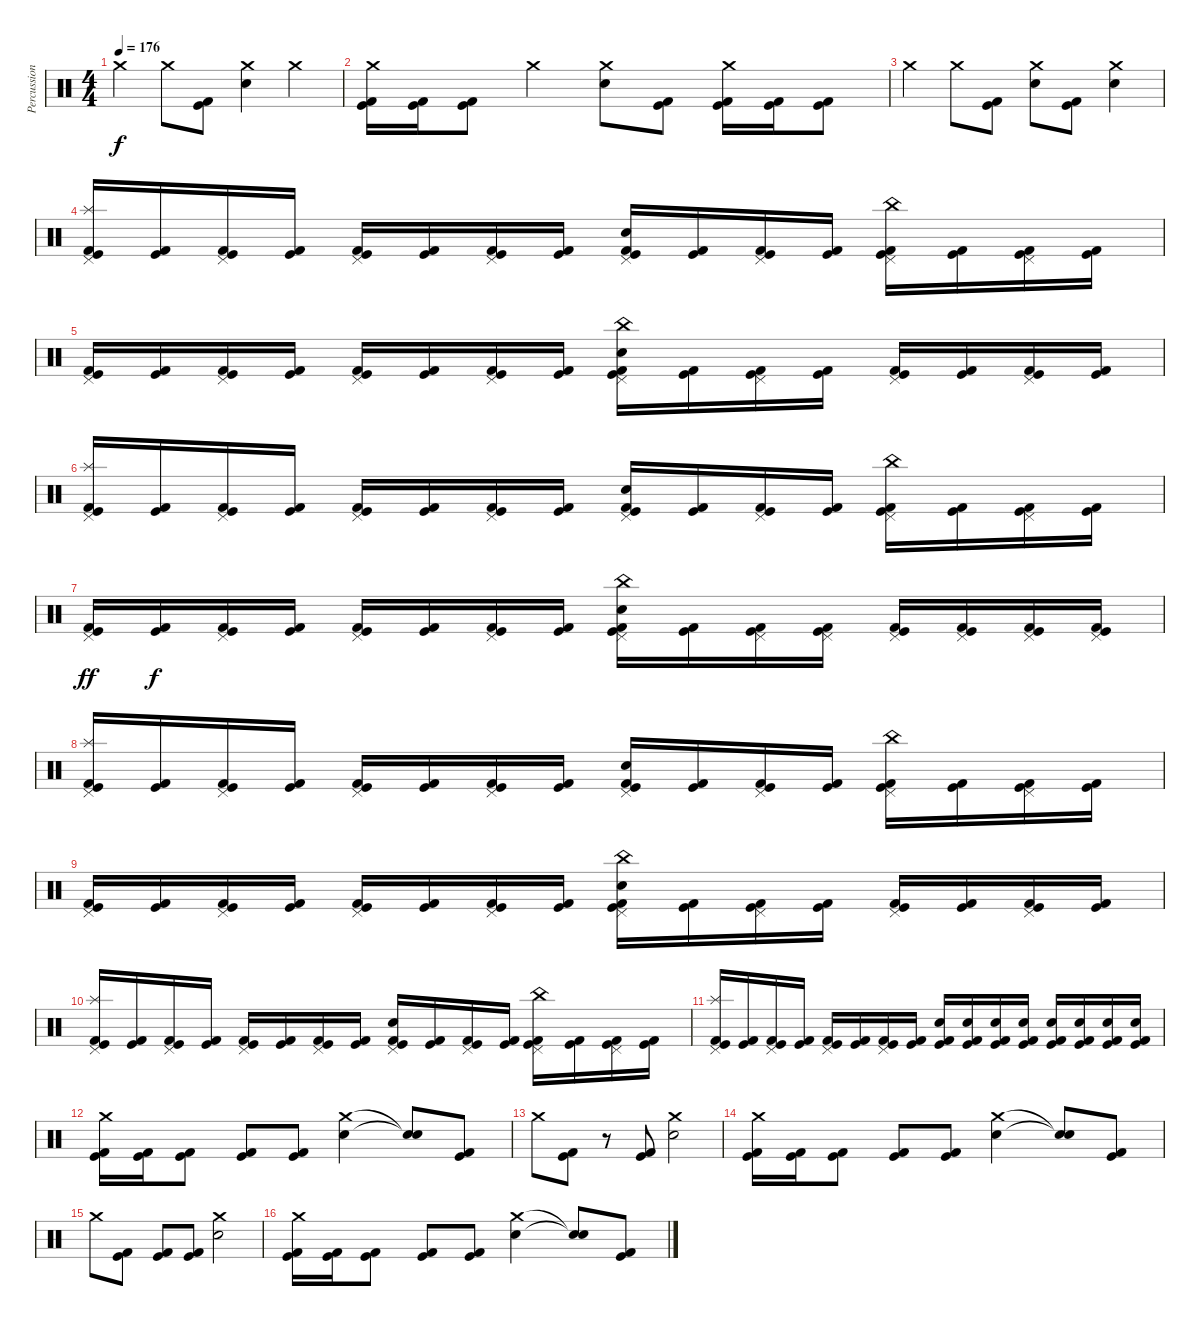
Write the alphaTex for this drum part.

\track ("Percussions" "Percussion") {instrument percussion}
\staff {score}
\articulation defaults
\ts (4 4)
\tempo 176
\clef neutral
\ks c "Crash medium (hit)".4{dy f} "Crash medium (hit)".8
("Kick (hit)" "Kick (hit) 2").8 ("Crash medium (hit)" "Electric Snare (hit)").4 "Crash medium (hit)".4 |
("Crash medium (hit)" "Kick (hit)" "Kick (hit) 2").16 ("Kick (hit)" "Kick (hit) 2").16 ("Kick (hit)" "Kick (hit) 2").8 "Crash medium (hit)".4 ("Crash medium (hit)" "Electric Snare (hit)").8 ("Kick (hit)" "Kick (hit) 2").8 ("Crash medium (hit)" "Kick (hit)" "Kick (hit) 2").16 ("Kick (hit)" "Kick (hit) 2").16 ("Kick (hit)" "Kick (hit) 2").8 |
"Crash medium (hit)".4 "Crash medium (hit)".8 ("Kick (hit)" "Kick (hit) 2").8 ("Crash medium (hit)" "Electric Snare (hit)").8 ("Kick (hit)" "Kick (hit) 2").8 ("Crash medium (hit)" "Electric Snare (hit)").4 |
("Splash (hit)" "Pedal Hi-Hat (hit)" "Kick (hit)" "Kick (hit) 2").16 ("Kick (hit)" "Kick (hit) 2").16 ("Pedal Hi-Hat (hit)" "Kick (hit)" "Kick (hit) 2").16 ("Kick (hit)" "Kick (hit) 2").16 ("Pedal Hi-Hat (hit)" "Kick (hit)" "Kick (hit) 2").16 ("Kick (hit)" "Kick (hit) 2").16 ("Pedal Hi-Hat (hit)" "Kick (hit)" "Kick (hit) 2").16 ("Kick (hit)" "Kick (hit) 2").16 ("Pedal Hi-Hat (hit)" "Electric Snare (hit)" "Kick (hit)" "Kick (hit) 2").16 ("Kick (hit)" "Kick (hit) 2").16 ("Pedal Hi-Hat (hit)" "Kick (hit)" "Kick (hit) 2").16 ("Kick (hit)" "Kick (hit) 2").16 ("China (hit)" "Pedal Hi-Hat (hit)" "Kick (hit)" "Kick (hit) 2").16 ("Kick (hit)" "Kick (hit) 2").16 ("Pedal Hi-Hat (hit)" "Kick (hit)" "Kick (hit) 2").16 ("Kick (hit)" "Kick (hit) 2").16 |
("Pedal Hi-Hat (hit)" "Kick (hit)" "Kick (hit) 2").16 ("Kick (hit)" "Kick (hit) 2").16 ("Pedal Hi-Hat (hit)" "Kick (hit)" "Kick (hit) 2").16 ("Kick (hit)" "Kick (hit) 2").16 ("Pedal Hi-Hat (hit)" "Kick (hit)" "Kick (hit) 2").16 ("Kick (hit)" "Kick (hit) 2").16 ("Pedal Hi-Hat (hit)" "Kick (hit)" "Kick (hit) 2").16 ("Kick (hit)" "Kick (hit) 2").16 ("China (hit)" "Pedal Hi-Hat (hit)" "Electric Snare (hit)" "Kick (hit)" "Kick (hit) 2").16 ("Kick (hit)" "Kick (hit) 2").16 ("Pedal Hi-Hat (hit)" "Kick (hit)" "Kick (hit) 2").16 ("Kick (hit)" "Kick (hit) 2").16 ("Pedal Hi-Hat (hit)" "Kick (hit)" "Kick (hit) 2").16 ("Kick (hit)" "Kick (hit) 2").16 ("Pedal Hi-Hat (hit)" "Kick (hit)" "Kick (hit) 2").16 ("Kick (hit)" "Kick (hit) 2").16 |
("Splash (hit)" "Pedal Hi-Hat (hit)" "Kick (hit)" "Kick (hit) 2").16 ("Kick (hit)" "Kick (hit) 2").16 ("Pedal Hi-Hat (hit)" "Kick (hit)" "Kick (hit) 2").16 ("Kick (hit)" "Kick (hit) 2").16 ("Pedal Hi-Hat (hit)" "Kick (hit)" "Kick (hit) 2").16 ("Kick (hit)" "Kick (hit) 2").16 ("Pedal Hi-Hat (hit)" "Kick (hit)" "Kick (hit) 2").16 ("Kick (hit)" "Kick (hit) 2").16 ("Pedal Hi-Hat (hit)" "Electric Snare (hit)" "Kick (hit)" "Kick (hit) 2").16 ("Kick (hit)" "Kick (hit) 2").16 ("Pedal Hi-Hat (hit)" "Kick (hit)" "Kick (hit) 2").16 ("Kick (hit)" "Kick (hit) 2").16 ("China (hit)" "Pedal Hi-Hat (hit)" "Kick (hit)" "Kick (hit) 2").16 ("Kick (hit)" "Kick (hit) 2").16 ("Pedal Hi-Hat (hit)" "Kick (hit)" "Kick (hit) 2").16 ("Kick (hit)" "Kick (hit) 2").16 |
("Pedal Hi-Hat (hit)" "Kick (hit)" "Kick (hit) 2").16{dy ff} ("Kick (hit)" "Kick (hit) 2").16{dy f} ("Pedal Hi-Hat (hit)" "Kick (hit)" "Kick (hit) 2").16 ("Kick (hit)" "Kick (hit) 2").16 ("Pedal Hi-Hat (hit)" "Kick (hit)" "Kick (hit) 2").16 ("Kick (hit)" "Kick (hit) 2").16 ("Pedal Hi-Hat (hit)" "Kick (hit)" "Kick (hit) 2").16 ("Kick (hit)" "Kick (hit) 2").16 ("China (hit)" "Pedal Hi-Hat (hit)" "Electric Snare (hit)" "Kick (hit)" "Kick (hit) 2").16 ("Kick (hit)" "Kick (hit) 2").16 ("Pedal Hi-Hat (hit)" "Kick (hit)" "Kick (hit) 2").16 ("Pedal Hi-Hat (hit)" "Kick (hit)" "Kick (hit) 2").16 ("Pedal Hi-Hat (hit)" "Kick (hit)" "Kick (hit) 2").16 ("Pedal Hi-Hat (hit)" "Kick (hit)" "Kick (hit) 2").16 ("Pedal Hi-Hat (hit)" "Kick (hit)" "Kick (hit) 2").16 ("Pedal Hi-Hat (hit)" "Kick (hit)" "Kick (hit) 2").16 |
("Splash (hit)" "Pedal Hi-Hat (hit)" "Kick (hit)" "Kick (hit) 2").16 ("Kick (hit)" "Kick (hit) 2").16 ("Pedal Hi-Hat (hit)" "Kick (hit)" "Kick (hit) 2").16 ("Kick (hit)" "Kick (hit) 2").16 ("Pedal Hi-Hat (hit)" "Kick (hit)" "Kick (hit) 2").16 ("Kick (hit)" "Kick (hit) 2").16 ("Pedal Hi-Hat (hit)" "Kick (hit)" "Kick (hit) 2").16 ("Kick (hit)" "Kick (hit) 2").16 ("Pedal Hi-Hat (hit)" "Electric Snare (hit)" "Kick (hit)" "Kick (hit) 2").16 ("Kick (hit)" "Kick (hit) 2").16 ("Pedal Hi-Hat (hit)" "Kick (hit)" "Kick (hit) 2").16 ("Kick (hit)" "Kick (hit) 2").16 ("China (hit)" "Pedal Hi-Hat (hit)" "Kick (hit)" "Kick (hit) 2").16 ("Kick (hit)" "Kick (hit) 2").16 ("Pedal Hi-Hat (hit)" "Kick (hit)" "Kick (hit) 2").16 ("Kick (hit)" "Kick (hit) 2").16 |
("Pedal Hi-Hat (hit)" "Kick (hit)" "Kick (hit) 2").16 ("Kick (hit)" "Kick (hit) 2").16 ("Pedal Hi-Hat (hit)" "Kick (hit)" "Kick (hit) 2").16 ("Kick (hit)" "Kick (hit) 2").16 ("Pedal Hi-Hat (hit)" "Kick (hit)" "Kick (hit) 2").16 ("Kick (hit)" "Kick (hit) 2").16 ("Pedal Hi-Hat (hit)" "Kick (hit)" "Kick (hit) 2").16 ("Kick (hit)" "Kick (hit) 2").16 ("China (hit)" "Pedal Hi-Hat (hit)" "Electric Snare (hit)" "Kick (hit)" "Kick (hit) 2").16 ("Kick (hit)" "Kick (hit) 2").16 ("Pedal Hi-Hat (hit)" "Kick (hit)" "Kick (hit) 2").16 ("Kick (hit)" "Kick (hit) 2").16 ("Pedal Hi-Hat (hit)" "Kick (hit)" "Kick (hit) 2").16 ("Kick (hit)" "Kick (hit) 2").16 ("Pedal Hi-Hat (hit)" "Kick (hit)" "Kick (hit) 2").16 ("Kick (hit)" "Kick (hit) 2").16 |
("Splash (hit)" "Pedal Hi-Hat (hit)" "Kick (hit)" "Kick (hit) 2").16 ("Kick (hit)" "Kick (hit) 2").16 ("Pedal Hi-Hat (hit)" "Kick (hit)" "Kick (hit) 2").16 ("Kick (hit)" "Kick (hit) 2").16 ("Pedal Hi-Hat (hit)" "Kick (hit)" "Kick (hit) 2").16 ("Kick (hit)" "Kick (hit) 2").16 ("Pedal Hi-Hat (hit)" "Kick (hit)" "Kick (hit) 2").16 ("Kick (hit)" "Kick (hit) 2").16 ("Pedal Hi-Hat (hit)" "Electric Snare (hit)" "Kick (hit)" "Kick (hit) 2").16 ("Kick (hit)" "Kick (hit) 2").16 ("Pedal Hi-Hat (hit)" "Kick (hit)" "Kick (hit) 2").16 ("Kick (hit)" "Kick (hit) 2").16 ("China (hit)" "Pedal Hi-Hat (hit)" "Kick (hit)" "Kick (hit) 2").16 ("Kick (hit)" "Kick (hit) 2").16 ("Pedal Hi-Hat (hit)" "Kick (hit)" "Kick (hit) 2").16 ("Kick (hit)" "Kick (hit) 2").16 |
("Splash (hit)" "Pedal Hi-Hat (hit)" "Kick (hit)" "Kick (hit) 2").16 ("Kick (hit)" "Kick (hit) 2").16 ("Pedal Hi-Hat (hit)" "Kick (hit)" "Kick (hit) 2").16 ("Kick (hit)" "Kick (hit) 2").16 ("Pedal Hi-Hat (hit)" "Kick (hit)" "Kick (hit) 2").16 ("Kick (hit)" "Kick (hit) 2").16 ("Pedal Hi-Hat (hit)" "Kick (hit)" "Kick (hit) 2").16 ("Kick (hit)" "Kick (hit) 2").16 ("Electric Snare (hit)" "Kick (hit)" "Kick (hit) 2").16 ("Electric Snare (hit)" "Kick (hit)" "Kick (hit) 2").16 ("Electric Snare (hit)" "Kick (hit)" "Kick (hit) 2").16 ("Electric Snare (hit)" "Kick (hit)" "Kick (hit) 2").16 ("Electric Snare (hit)" "Kick (hit)" "Kick (hit) 2").16 ("Electric Snare (hit)" "Kick (hit)" "Kick (hit) 2").16 ("Electric Snare (hit)" "Kick (hit)" "Kick (hit) 2").16 ("Electric Snare (hit)" "Kick (hit)" "Kick (hit) 2").16 |
("Crash medium (hit)" "Kick (hit)" "Kick (hit) 2").16 ("Kick (hit)" "Kick (hit) 2").16 ("Kick (hit)" "Kick (hit) 2").8 ("Kick (hit)" "Kick (hit) 2").8 ("Kick (hit)" "Kick (hit) 2").8 ("Crash medium (hit)" "Electric Snare (hit)").4 ("Snare (hit)"{t} "Snare (hit)"{t}).8 ("Kick (hit)" "Kick (hit) 2").8 |
"Crash medium (hit)".8 ("Kick (hit)" "Kick (hit) 2").8 r.8 ("Kick (hit)" "Kick (hit) 2").8 ("Crash medium (hit)" "Electric Snare (hit)").2 |
("Crash medium (hit)" "Kick (hit)" "Kick (hit) 2").16 ("Kick (hit)" "Kick (hit) 2").16 ("Kick (hit)" "Kick (hit) 2").8 ("Kick (hit)" "Kick (hit) 2").8 ("Kick (hit)" "Kick (hit) 2").8 ("Crash medium (hit)" "Electric Snare (hit)").4 ("Snare (hit)"{t} "Snare (hit)"{t}).8 ("Kick (hit)" "Kick (hit) 2").8 |
"Crash medium (hit)".8 ("Kick (hit)" "Kick (hit) 2").8 ("Kick (hit)" "Kick (hit) 2").8 ("Kick (hit)" "Kick (hit) 2").8 ("Crash medium (hit)" "Electric Snare (hit)").2 |
("Crash medium (hit)" "Kick (hit)" "Kick (hit) 2").16 ("Kick (hit)" "Kick (hit) 2").16 ("Kick (hit)" "Kick (hit) 2").8 ("Kick (hit)" "Kick (hit) 2").8 ("Kick (hit)" "Kick (hit) 2").8 ("Crash medium (hit)" "Electric Snare (hit)").4 ("Snare (hit)"{t} "Snare (hit)"{t}).8 ("Kick (hit)" "Kick (hit) 2").8
